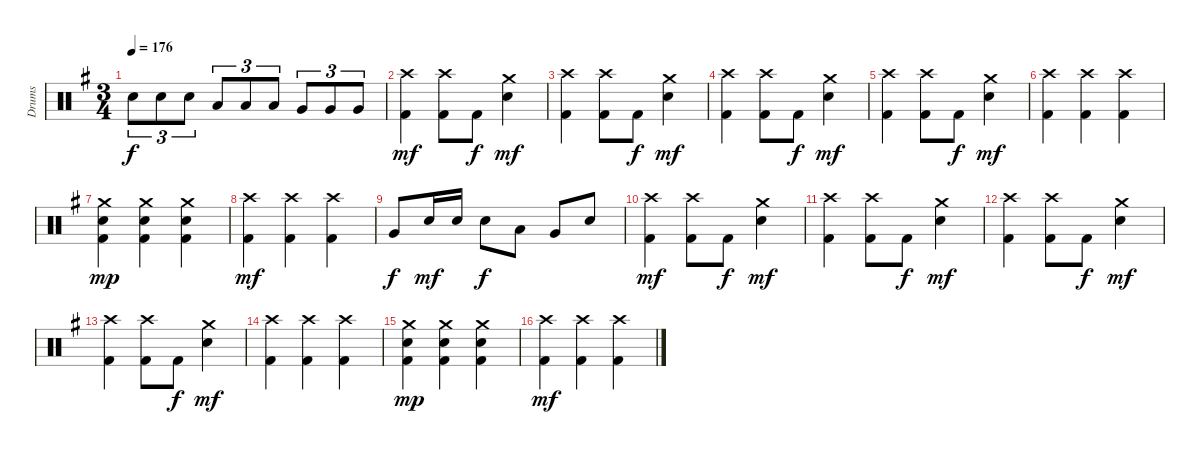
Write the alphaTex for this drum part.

\track ("Drums" "Drums") {instrument percussion}
\staff {score}
\articulation defaults
\ts (3 4)
\tempo 176
\clef neutral
\ks g "Snare (hit) 2".8{tu (3 2) dy f} "Snare (hit) 2".8{tu (3 2)} "Snare (hit) 2".8{tu (3 2)} "Low Tom (hit)".8{tu (3 2)} "Low Tom (hit)".8{tu (3 2)} "Low Tom (hit)".8{tu (3 2)} "Very Low Tom (hit)".8{tu (3 2)} "Very Low Tom (hit)".8{tu (3 2)} "Very Low Tom (hit)".8{tu (3 2)}
|
("Crash high (hit)" "Kick (hit) 2").4{dy mf} ("Crash high (hit)" "Kick (hit) 2").8 "Kick (hit) 2".8{dy f} ("Crash medium (hit)" "Snare (hit) 2").4{dy mf} |
("Crash high (hit)" "Kick (hit) 2").4 ("Crash high (hit)" "Kick (hit) 2").8 "Kick (hit) 2".8{dy f} ("Crash medium (hit)" "Snare (hit) 2").4{dy mf} |
("Crash high (hit)" "Kick (hit) 2").4 ("Crash high (hit)" "Kick (hit) 2").8 "Kick (hit) 2".8{dy f} ("Crash medium (hit)" "Snare (hit) 2").4{dy mf} |
("Crash high (hit)" "Kick (hit) 2").4 ("Crash high (hit)" "Kick (hit) 2").8 "Kick (hit) 2".8{dy f} ("Crash medium (hit)" "Snare (hit) 2").4{dy mf} |
("Crash high (hit)" "Kick (hit) 2").4 ("Crash high (hit)" "Kick (hit) 2").4 ("Crash high (hit)" "Kick (hit) 2").4 |
("Crash medium (hit)" "Snare (hit) 2" "Kick (hit) 2").4{dy mp} ("Crash medium (hit)" "Snare (hit) 2" "Kick (hit) 2").4 ("Crash medium (hit)" "Snare (hit) 2" "Kick (hit) 2").4 |
("Crash high (hit)" "Kick (hit) 2").4{dy mf} ("Crash high (hit)" "Kick (hit) 2").4 ("Crash high (hit)" "Kick (hit) 2").4 |
"Very Low Tom (hit)".8{dy f} "Snare (hit) 2".16{dy mf} "Snare (hit) 2".16 "Snare (hit) 2".8{dy f} "Low Tom (hit)".8 "Very Low Tom (hit)".8 "Snare (hit) 2".8 |
("Crash high (hit)" "Kick (hit) 2").4{dy mf} ("Crash high (hit)" "Kick (hit) 2").8 "Kick (hit) 2".8{dy f} ("Crash medium (hit)" "Snare (hit) 2").4{dy mf} |
("Crash high (hit)" "Kick (hit) 2").4 ("Crash high (hit)" "Kick (hit) 2").8 "Kick (hit) 2".8{dy f} ("Crash medium (hit)" "Snare (hit) 2").4{dy mf} |
("Crash high (hit)" "Kick (hit) 2").4 ("Crash high (hit)" "Kick (hit) 2").8 "Kick (hit) 2".8{dy f} ("Crash medium (hit)" "Snare (hit) 2").4{dy mf} |
("Crash high (hit)" "Kick (hit) 2").4 ("Crash high (hit)" "Kick (hit) 2").8 "Kick (hit) 2".8{dy f} ("Crash medium (hit)" "Snare (hit) 2").4{dy mf} |
("Crash high (hit)" "Kick (hit) 2").4 ("Crash high (hit)" "Kick (hit) 2").4 ("Crash high (hit)" "Kick (hit) 2").4 |
("Crash medium (hit)" "Snare (hit) 2" "Kick (hit) 2").4{dy mp} ("Crash medium (hit)" "Snare (hit) 2" "Kick (hit) 2").4 ("Crash medium (hit)" "Snare (hit) 2" "Kick (hit) 2").4 |
("Crash high (hit)" "Kick (hit) 2").4{dy mf} ("Crash high (hit)" "Kick (hit) 2").4 ("Crash high (hit)" "Kick (hit) 2").4
